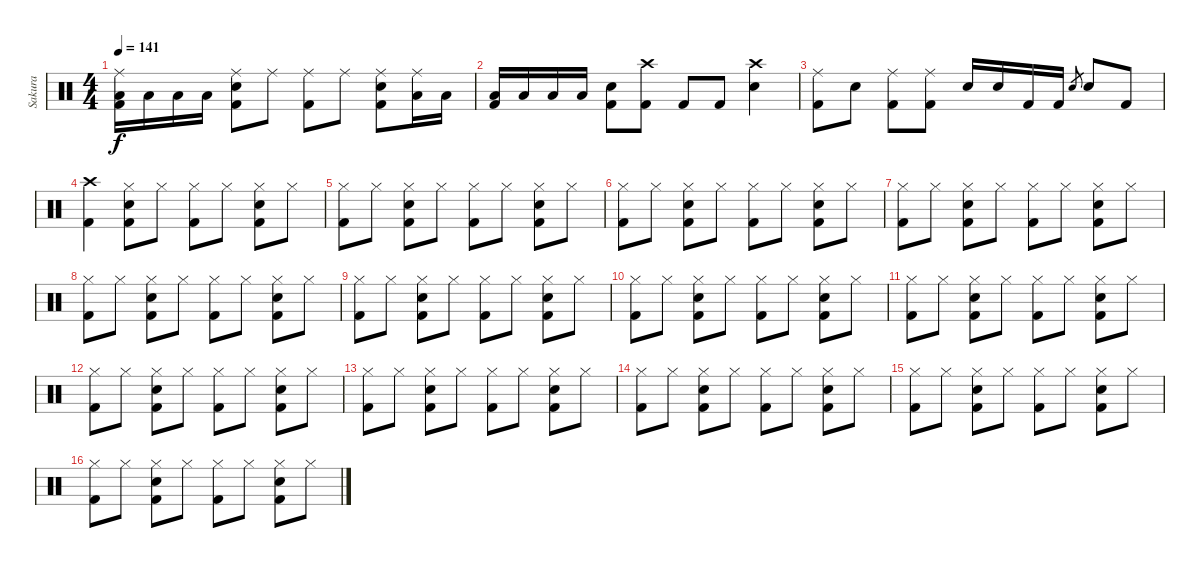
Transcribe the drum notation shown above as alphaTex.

\track ("Sakura" "Sakura") {instrument percussion}
\staff {score}
\articulation defaults
\ts (4 4)
\tempo 141
\clef neutral
\ks c
("Ride (middle)" "Low Tom (hit)" "Kick (hit) 2").16{dy f} "Low Tom (hit)".16 "Low Floor Tom (hit)".16 "Low Floor Tom (hit)".16 ("Ride (middle)" "Snare (hit) 2" "Kick (hit) 2").8 "Ride (middle)".8 ("Ride (middle)" "Kick (hit) 2").8 "Ride (middle)".8 ("Ride (middle)" "Snare (hit) 2" "Kick (hit) 2").8 ("Ride (middle)" "Low Tom (hit)").16 "Low Tom (hit)".16 |
("Low Tom (hit)" "Kick (hit) 2").16 "Low Tom (hit)".16 "Low Floor Tom (hit)".16 "Low Floor Tom (hit)".16 ("Snare (hit) 2" "Kick (hit) 2").8 ("Crash high (hit)" "Kick (hit) 2").8 "Kick (hit) 2".8 "Kick (hit) 2".8 ("Crash high (hit)" "Snare (hit) 2").4 |
("Ride (middle)" "Kick (hit) 2").8 "Snare (hit) 2".8 ("Ride (middle)" "Kick (hit) 2").8 ("Ride (middle)" "Kick (hit) 2").8 "Snare (hit) 2".16 "Snare (hit) 2".16 "Kick (hit) 2".16 "Kick (hit) 2".16 "Snare (hit) 2".8{gr} "Snare (hit) 2".8 "Kick (hit) 2".8 |
("Crash high (hit)" "Kick (hit) 2").4 ("Hi-Hat (closed)" "Snare (hit) 2" "Kick (hit) 2").8 "Hi-Hat (closed)".8 ("Hi-Hat (closed)" "Kick (hit) 2").8 "Hi-Hat (closed)".8 ("Hi-Hat (closed)" "Snare (hit) 2" "Kick (hit) 2").8 "Hi-Hat (closed)".8 |
("Hi-Hat (closed)" "Kick (hit) 2").8 "Hi-Hat (closed)".8 ("Hi-Hat (closed)" "Snare (hit) 2" "Kick (hit) 2").8 "Hi-Hat (closed)".8 ("Hi-Hat (closed)" "Kick (hit) 2").8 "Hi-Hat (closed)".8 ("Hi-Hat (closed)" "Snare (hit) 2" "Kick (hit) 2").8 "Hi-Hat (closed)".8 |
("Hi-Hat (closed)" "Kick (hit) 2").8 "Hi-Hat (closed)".8 ("Hi-Hat (closed)" "Snare (hit) 2" "Kick (hit) 2").8 "Hi-Hat (closed)".8 ("Hi-Hat (closed)" "Kick (hit) 2").8 "Hi-Hat (closed)".8 ("Hi-Hat (closed)" "Snare (hit) 2" "Kick (hit) 2").8 "Hi-Hat (closed)".8 |
("Hi-Hat (closed)" "Kick (hit) 2").8 "Hi-Hat (closed)".8 ("Hi-Hat (closed)" "Snare (hit) 2" "Kick (hit) 2").8 "Hi-Hat (closed)".8 ("Hi-Hat (closed)" "Kick (hit) 2").8 "Hi-Hat (closed)".8 ("Hi-Hat (closed)" "Snare (hit) 2" "Kick (hit) 2").8 "Hi-Hat (closed)".8 |
("Hi-Hat (closed)" "Kick (hit) 2").8 "Hi-Hat (closed)".8 ("Hi-Hat (closed)" "Snare (hit) 2" "Kick (hit) 2").8 "Hi-Hat (closed)".8 ("Hi-Hat (closed)" "Kick (hit) 2").8 "Hi-Hat (closed)".8 ("Hi-Hat (closed)" "Snare (hit) 2" "Kick (hit) 2").8 "Hi-Hat (closed)".8 |
("Hi-Hat (closed)" "Kick (hit) 2").8 "Hi-Hat (closed)".8 ("Hi-Hat (closed)" "Snare (hit) 2" "Kick (hit) 2").8 "Hi-Hat (closed)".8 ("Hi-Hat (closed)" "Kick (hit) 2").8 "Hi-Hat (closed)".8 ("Hi-Hat (closed)" "Snare (hit) 2" "Kick (hit) 2").8 "Hi-Hat (closed)".8 |
("Hi-Hat (closed)" "Kick (hit) 2").8 "Hi-Hat (closed)".8 ("Hi-Hat (closed)" "Snare (hit) 2" "Kick (hit) 2").8 "Hi-Hat (closed)".8 ("Hi-Hat (closed)" "Kick (hit) 2").8 "Hi-Hat (closed)".8 ("Hi-Hat (closed)" "Snare (hit) 2" "Kick (hit) 2").8 "Hi-Hat (closed)".8 |
("Hi-Hat (closed)" "Kick (hit) 2").8 "Hi-Hat (closed)".8 ("Hi-Hat (closed)" "Snare (hit) 2" "Kick (hit) 2").8 "Hi-Hat (closed)".8 ("Hi-Hat (closed)" "Kick (hit) 2").8 "Hi-Hat (closed)".8 ("Hi-Hat (closed)" "Snare (hit) 2" "Kick (hit) 2").8 "Hi-Hat (closed)".8 |
("Hi-Hat (closed)" "Kick (hit) 2").8 "Hi-Hat (closed)".8 ("Hi-Hat (closed)" "Snare (hit) 2" "Kick (hit) 2").8 "Hi-Hat (closed)".8 ("Hi-Hat (closed)" "Kick (hit) 2").8 "Hi-Hat (closed)".8 ("Hi-Hat (closed)" "Snare (hit) 2" "Kick (hit) 2").8 "Hi-Hat (closed)".8 |
("Hi-Hat (closed)" "Kick (hit) 2").8 "Hi-Hat (closed)".8 ("Hi-Hat (closed)" "Snare (hit) 2" "Kick (hit) 2").8 "Hi-Hat (closed)".8 ("Hi-Hat (closed)" "Kick (hit) 2").8 "Hi-Hat (closed)".8 ("Hi-Hat (closed)" "Snare (hit) 2" "Kick (hit) 2").8 "Hi-Hat (closed)".8 |
("Hi-Hat (closed)" "Kick (hit) 2").8 "Hi-Hat (closed)".8 ("Hi-Hat (closed)" "Snare (hit) 2" "Kick (hit) 2").8 "Hi-Hat (closed)".8 ("Hi-Hat (closed)" "Kick (hit) 2").8 "Hi-Hat (closed)".8 ("Hi-Hat (closed)" "Snare (hit) 2" "Kick (hit) 2").8 "Hi-Hat (closed)".8 |
("Hi-Hat (closed)" "Kick (hit) 2").8 "Hi-Hat (closed)".8 ("Hi-Hat (closed)" "Snare (hit) 2" "Kick (hit) 2").8 "Hi-Hat (closed)".8 ("Hi-Hat (closed)" "Kick (hit) 2").8 "Hi-Hat (closed)".8 ("Hi-Hat (closed)" "Snare (hit) 2" "Kick (hit) 2").8 "Hi-Hat (closed)".8 |
("Hi-Hat (closed)" "Kick (hit) 2").8 "Hi-Hat (closed)".8 ("Hi-Hat (closed)" "Snare (hit) 2" "Kick (hit) 2").8 "Hi-Hat (closed)".8 ("Hi-Hat (closed)" "Kick (hit) 2").8 "Hi-Hat (closed)".8 ("Hi-Hat (closed)" "Snare (hit) 2" "Kick (hit) 2").8 "Hi-Hat (closed)".8
